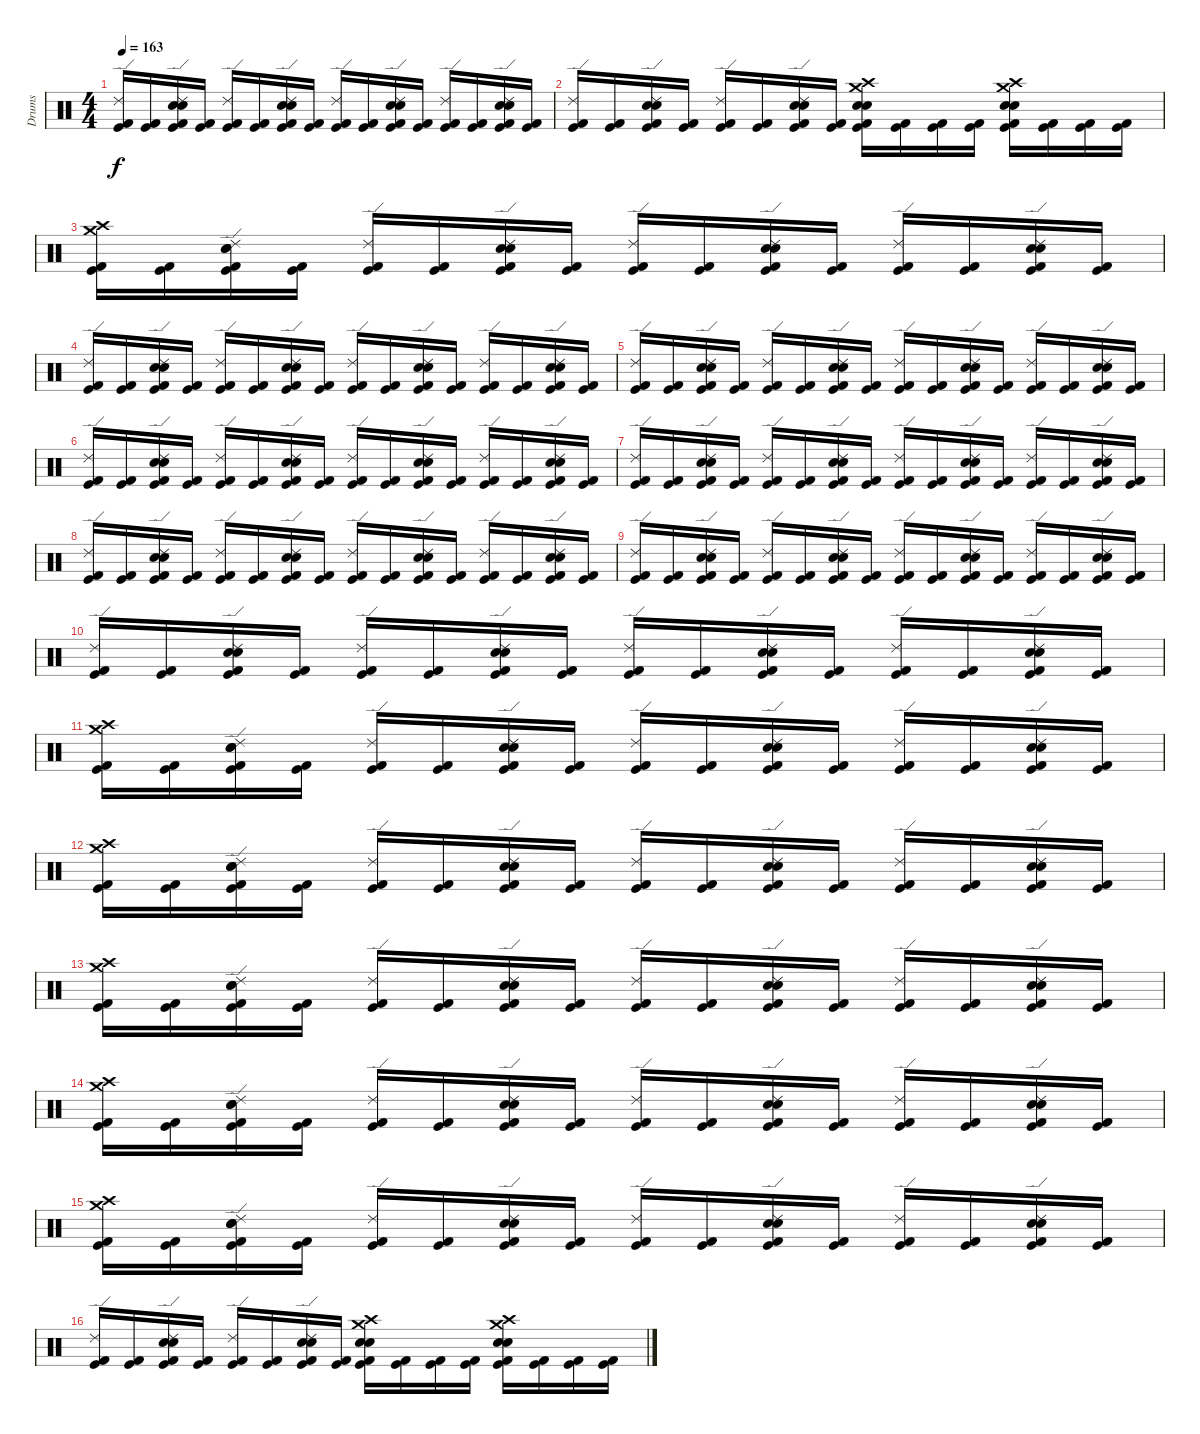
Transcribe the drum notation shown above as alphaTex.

\track ("Drums" "Drums") {instrument percussion}
\staff {score}
\articulation defaults
\ts (4 4)
\tempo 163
\clef neutral
\ks c
("Ride (edge) 2" "Kick (hit) 2" "Kick (hit)").16{dy f} ("Kick (hit) 2" "Kick (hit)").16 ("Ride (edge) 2" "Electric Snare (hit)" "Snare (hit) 2" "Kick (hit) 2" "Kick (hit)").16 ("Kick (hit) 2" "Kick (hit)").16 ("Ride (edge) 2" "Kick (hit) 2" "Kick (hit)").16 ("Kick (hit) 2" "Kick (hit)").16 ("Ride (edge) 2" "Electric Snare (hit)" "Snare (hit) 2" "Kick (hit) 2" "Kick (hit)").16 ("Kick (hit) 2" "Kick (hit)").16 ("Ride (edge) 2" "Kick (hit) 2" "Kick (hit)").16 ("Kick (hit) 2" "Kick (hit)").16 ("Ride (edge) 2" "Electric Snare (hit)" "Snare (hit) 2" "Kick (hit) 2" "Kick (hit)").16 ("Kick (hit) 2" "Kick (hit)").16 ("Ride (edge) 2" "Kick (hit) 2" "Kick (hit)").16 ("Kick (hit) 2" "Kick (hit)").16 ("Ride (edge) 2" "Electric Snare (hit)" "Snare (hit) 2" "Kick (hit) 2" "Kick (hit)").16 ("Kick (hit) 2" "Kick (hit)").16 |
("Ride (edge) 2" "Kick (hit) 2" "Kick (hit)").16 ("Kick (hit) 2" "Kick (hit)").16 ("Ride (edge) 2" "Electric Snare (hit)" "Snare (hit) 2" "Kick (hit) 2" "Kick (hit)").16 ("Kick (hit) 2" "Kick (hit)").16 ("Ride (edge) 2" "Kick (hit) 2" "Kick (hit)").16 ("Kick (hit) 2" "Kick (hit)").16 ("Ride (edge) 2" "Electric Snare (hit)" "Snare (hit) 2" "Kick (hit) 2" "Kick (hit)").16 ("Kick (hit) 2" "Kick (hit)").16 ("Crash high (hit)" "Crash medium (hit)" "Snare (hit) 2" "Electric Snare (hit)" "Kick (hit) 2" "Kick (hit)").16 ("Kick (hit) 2" "Kick (hit)").16 ("Kick (hit) 2" "Kick (hit)").16 ("Kick (hit) 2" "Kick (hit)").16 ("Snare (hit) 2" "Electric Snare (hit)" "Crash medium (hit)" "Crash high (hit)" "Kick (hit) 2" "Kick (hit)").16 ("Kick (hit) 2" "Kick (hit)").16 ("Kick (hit) 2" "Kick (hit)").16 ("Kick (hit) 2" "Kick (hit)").16 |
("Crash high (hit)" "Crash medium (hit)" "Kick (hit) 2" "Kick (hit)").16 ("Kick (hit) 2" "Kick (hit)").16 ("Ride (edge) 2" "Electric Snare (hit)" "Snare (hit) 2" "Kick (hit) 2" "Kick (hit)").16 ("Kick (hit) 2" "Kick (hit)").16 ("Ride (edge) 2" "Kick (hit) 2" "Kick (hit)").16 ("Kick (hit) 2" "Kick (hit)").16 ("Ride (edge) 2" "Electric Snare (hit)" "Snare (hit) 2" "Kick (hit) 2" "Kick (hit)").16 ("Kick (hit) 2" "Kick (hit)").16 ("Ride (edge) 2" "Kick (hit) 2" "Kick (hit)").16 ("Kick (hit) 2" "Kick (hit)").16 ("Ride (edge) 2" "Electric Snare (hit)" "Snare (hit) 2" "Kick (hit) 2" "Kick (hit)").16 ("Kick (hit) 2" "Kick (hit)").16 ("Ride (edge) 2" "Kick (hit) 2" "Kick (hit)").16 ("Kick (hit) 2" "Kick (hit)").16 ("Ride (edge) 2" "Electric Snare (hit)" "Snare (hit) 2" "Kick (hit) 2" "Kick (hit)").16 ("Kick (hit) 2" "Kick (hit)").16 |
("Ride (edge) 2" "Kick (hit) 2" "Kick (hit)").16 ("Kick (hit) 2" "Kick (hit)").16 ("Ride (edge) 2" "Electric Snare (hit)" "Snare (hit) 2" "Kick (hit) 2" "Kick (hit)").16 ("Kick (hit) 2" "Kick (hit)").16 ("Ride (edge) 2" "Kick (hit) 2" "Kick (hit)").16 ("Kick (hit) 2" "Kick (hit)").16 ("Ride (edge) 2" "Electric Snare (hit)" "Snare (hit) 2" "Kick (hit) 2" "Kick (hit)").16 ("Kick (hit) 2" "Kick (hit)").16 ("Ride (edge) 2" "Kick (hit) 2" "Kick (hit)").16 ("Kick (hit) 2" "Kick (hit)").16 ("Ride (edge) 2" "Electric Snare (hit)" "Snare (hit) 2" "Kick (hit) 2" "Kick (hit)").16 ("Kick (hit) 2" "Kick (hit)").16 ("Ride (edge) 2" "Kick (hit) 2" "Kick (hit)").16 ("Kick (hit) 2" "Kick (hit)").16 ("Ride (edge) 2" "Electric Snare (hit)" "Snare (hit) 2" "Kick (hit) 2" "Kick (hit)").16 ("Kick (hit) 2" "Kick (hit)").16 |
("Ride (edge) 2" "Kick (hit) 2" "Kick (hit)").16 ("Kick (hit) 2" "Kick (hit)").16 ("Ride (edge) 2" "Electric Snare (hit)" "Snare (hit) 2" "Kick (hit) 2" "Kick (hit)").16 ("Kick (hit) 2" "Kick (hit)").16 ("Ride (edge) 2" "Kick (hit) 2" "Kick (hit)").16 ("Kick (hit) 2" "Kick (hit)").16 ("Ride (edge) 2" "Electric Snare (hit)" "Snare (hit) 2" "Kick (hit) 2" "Kick (hit)").16 ("Kick (hit) 2" "Kick (hit)").16 ("Ride (edge) 2" "Kick (hit) 2" "Kick (hit)").16 ("Kick (hit) 2" "Kick (hit)").16 ("Ride (edge) 2" "Electric Snare (hit)" "Snare (hit) 2" "Kick (hit) 2" "Kick (hit)").16 ("Kick (hit) 2" "Kick (hit)").16 ("Ride (edge) 2" "Kick (hit) 2" "Kick (hit)").16 ("Kick (hit) 2" "Kick (hit)").16 ("Ride (edge) 2" "Electric Snare (hit)" "Snare (hit) 2" "Kick (hit) 2" "Kick (hit)").16 ("Kick (hit) 2" "Kick (hit)").16 |
("Ride (edge) 2" "Kick (hit) 2" "Kick (hit)").16 ("Kick (hit) 2" "Kick (hit)").16 ("Ride (edge) 2" "Electric Snare (hit)" "Snare (hit) 2" "Kick (hit) 2" "Kick (hit)").16 ("Kick (hit) 2" "Kick (hit)").16 ("Ride (edge) 2" "Kick (hit) 2" "Kick (hit)").16 ("Kick (hit) 2" "Kick (hit)").16 ("Ride (edge) 2" "Electric Snare (hit)" "Snare (hit) 2" "Kick (hit) 2" "Kick (hit)").16 ("Kick (hit) 2" "Kick (hit)").16 ("Ride (edge) 2" "Kick (hit) 2" "Kick (hit)").16 ("Kick (hit) 2" "Kick (hit)").16 ("Ride (edge) 2" "Electric Snare (hit)" "Snare (hit) 2" "Kick (hit) 2" "Kick (hit)").16 ("Kick (hit) 2" "Kick (hit)").16 ("Ride (edge) 2" "Kick (hit) 2" "Kick (hit)").16 ("Kick (hit) 2" "Kick (hit)").16 ("Ride (edge) 2" "Electric Snare (hit)" "Snare (hit) 2" "Kick (hit) 2" "Kick (hit)").16 ("Kick (hit) 2" "Kick (hit)").16 |
("Ride (edge) 2" "Kick (hit) 2" "Kick (hit)").16 ("Kick (hit) 2" "Kick (hit)").16 ("Ride (edge) 2" "Electric Snare (hit)" "Snare (hit) 2" "Kick (hit) 2" "Kick (hit)").16 ("Kick (hit) 2" "Kick (hit)").16 ("Ride (edge) 2" "Kick (hit) 2" "Kick (hit)").16 ("Kick (hit) 2" "Kick (hit)").16 ("Ride (edge) 2" "Electric Snare (hit)" "Snare (hit) 2" "Kick (hit) 2" "Kick (hit)").16 ("Kick (hit) 2" "Kick (hit)").16 ("Ride (edge) 2" "Kick (hit) 2" "Kick (hit)").16 ("Kick (hit) 2" "Kick (hit)").16 ("Ride (edge) 2" "Electric Snare (hit)" "Snare (hit) 2" "Kick (hit) 2" "Kick (hit)").16 ("Kick (hit) 2" "Kick (hit)").16 ("Ride (edge) 2" "Kick (hit) 2" "Kick (hit)").16 ("Kick (hit) 2" "Kick (hit)").16 ("Ride (edge) 2" "Electric Snare (hit)" "Snare (hit) 2" "Kick (hit) 2" "Kick (hit)").16 ("Kick (hit) 2" "Kick (hit)").16 |
("Ride (edge) 2" "Kick (hit) 2" "Kick (hit)").16 ("Kick (hit) 2" "Kick (hit)").16 ("Ride (edge) 2" "Electric Snare (hit)" "Snare (hit) 2" "Kick (hit) 2" "Kick (hit)").16 ("Kick (hit) 2" "Kick (hit)").16 ("Ride (edge) 2" "Kick (hit) 2" "Kick (hit)").16 ("Kick (hit) 2" "Kick (hit)").16 ("Ride (edge) 2" "Electric Snare (hit)" "Snare (hit) 2" "Kick (hit) 2" "Kick (hit)").16 ("Kick (hit) 2" "Kick (hit)").16 ("Ride (edge) 2" "Kick (hit) 2" "Kick (hit)").16 ("Kick (hit) 2" "Kick (hit)").16 ("Ride (edge) 2" "Electric Snare (hit)" "Snare (hit) 2" "Kick (hit) 2" "Kick (hit)").16 ("Kick (hit) 2" "Kick (hit)").16 ("Ride (edge) 2" "Kick (hit) 2" "Kick (hit)").16 ("Kick (hit) 2" "Kick (hit)").16 ("Ride (edge) 2" "Electric Snare (hit)" "Snare (hit) 2" "Kick (hit) 2" "Kick (hit)").16 ("Kick (hit) 2" "Kick (hit)").16 |
("Ride (edge) 2" "Kick (hit) 2" "Kick (hit)").16 ("Kick (hit) 2" "Kick (hit)").16 ("Ride (edge) 2" "Electric Snare (hit)" "Snare (hit) 2" "Kick (hit) 2" "Kick (hit)").16 ("Kick (hit) 2" "Kick (hit)").16 ("Ride (edge) 2" "Kick (hit) 2" "Kick (hit)").16 ("Kick (hit) 2" "Kick (hit)").16 ("Ride (edge) 2" "Electric Snare (hit)" "Snare (hit) 2" "Kick (hit) 2" "Kick (hit)").16 ("Kick (hit) 2" "Kick (hit)").16 ("Ride (edge) 2" "Kick (hit) 2" "Kick (hit)").16 ("Kick (hit) 2" "Kick (hit)").16 ("Ride (edge) 2" "Electric Snare (hit)" "Snare (hit) 2" "Kick (hit) 2" "Kick (hit)").16 ("Kick (hit) 2" "Kick (hit)").16 ("Ride (edge) 2" "Kick (hit) 2" "Kick (hit)").16 ("Kick (hit) 2" "Kick (hit)").16 ("Ride (edge) 2" "Electric Snare (hit)" "Snare (hit) 2" "Kick (hit) 2" "Kick (hit)").16 ("Kick (hit) 2" "Kick (hit)").16 |
("Ride (edge) 2" "Kick (hit) 2" "Kick (hit)").16 ("Kick (hit) 2" "Kick (hit)").16 ("Ride (edge) 2" "Electric Snare (hit)" "Snare (hit) 2" "Kick (hit) 2" "Kick (hit)").16 ("Kick (hit) 2" "Kick (hit)").16 ("Ride (edge) 2" "Kick (hit) 2" "Kick (hit)").16 ("Kick (hit) 2" "Kick (hit)").16 ("Ride (edge) 2" "Electric Snare (hit)" "Snare (hit) 2" "Kick (hit) 2" "Kick (hit)").16 ("Kick (hit) 2" "Kick (hit)").16 ("Ride (edge) 2" "Kick (hit) 2" "Kick (hit)").16 ("Kick (hit) 2" "Kick (hit)").16 ("Ride (edge) 2" "Electric Snare (hit)" "Snare (hit) 2" "Kick (hit) 2" "Kick (hit)").16 ("Kick (hit) 2" "Kick (hit)").16 ("Ride (edge) 2" "Kick (hit) 2" "Kick (hit)").16 ("Kick (hit) 2" "Kick (hit)").16 ("Ride (edge) 2" "Electric Snare (hit)" "Snare (hit) 2" "Kick (hit) 2" "Kick (hit)").16 ("Kick (hit) 2" "Kick (hit)").16 |
("Crash high (hit)" "Crash medium (hit)" "Kick (hit) 2" "Kick (hit)").16 ("Kick (hit) 2" "Kick (hit)").16 ("Ride (edge) 2" "Electric Snare (hit)" "Snare (hit) 2" "Kick (hit) 2" "Kick (hit)").16 ("Kick (hit) 2" "Kick (hit)").16 ("Ride (edge) 2" "Kick (hit) 2" "Kick (hit)").16 ("Kick (hit) 2" "Kick (hit)").16 ("Ride (edge) 2" "Electric Snare (hit)" "Snare (hit) 2" "Kick (hit) 2" "Kick (hit)").16 ("Kick (hit) 2" "Kick (hit)").16 ("Ride (edge) 2" "Kick (hit) 2" "Kick (hit)").16 ("Kick (hit) 2" "Kick (hit)").16 ("Ride (edge) 2" "Electric Snare (hit)" "Snare (hit) 2" "Kick (hit) 2" "Kick (hit)").16 ("Kick (hit) 2" "Kick (hit)").16 ("Ride (edge) 2" "Kick (hit) 2" "Kick (hit)").16 ("Kick (hit) 2" "Kick (hit)").16 ("Ride (edge) 2" "Electric Snare (hit)" "Snare (hit) 2" "Kick (hit) 2" "Kick (hit)").16 ("Kick (hit) 2" "Kick (hit)").16 |
("Crash high (hit)" "Crash medium (hit)" "Kick (hit) 2" "Kick (hit)").16 ("Kick (hit) 2" "Kick (hit)").16 ("Ride (edge) 2" "Electric Snare (hit)" "Snare (hit) 2" "Kick (hit) 2" "Kick (hit)").16 ("Kick (hit) 2" "Kick (hit)").16 ("Ride (edge) 2" "Kick (hit) 2" "Kick (hit)").16 ("Kick (hit) 2" "Kick (hit)").16 ("Ride (edge) 2" "Electric Snare (hit)" "Snare (hit) 2" "Kick (hit) 2" "Kick (hit)").16 ("Kick (hit) 2" "Kick (hit)").16 ("Ride (edge) 2" "Kick (hit) 2" "Kick (hit)").16 ("Kick (hit) 2" "Kick (hit)").16 ("Ride (edge) 2" "Electric Snare (hit)" "Snare (hit) 2" "Kick (hit) 2" "Kick (hit)").16 ("Kick (hit) 2" "Kick (hit)").16 ("Ride (edge) 2" "Kick (hit) 2" "Kick (hit)").16 ("Kick (hit) 2" "Kick (hit)").16 ("Ride (edge) 2" "Electric Snare (hit)" "Snare (hit) 2" "Kick (hit) 2" "Kick (hit)").16 ("Kick (hit) 2" "Kick (hit)").16 |
("Crash high (hit)" "Crash medium (hit)" "Kick (hit) 2" "Kick (hit)").16 ("Kick (hit) 2" "Kick (hit)").16 ("Ride (edge) 2" "Electric Snare (hit)" "Snare (hit) 2" "Kick (hit) 2" "Kick (hit)").16 ("Kick (hit) 2" "Kick (hit)").16 ("Ride (edge) 2" "Kick (hit) 2" "Kick (hit)").16 ("Kick (hit) 2" "Kick (hit)").16 ("Ride (edge) 2" "Electric Snare (hit)" "Snare (hit) 2" "Kick (hit) 2" "Kick (hit)").16 ("Kick (hit) 2" "Kick (hit)").16 ("Ride (edge) 2" "Kick (hit) 2" "Kick (hit)").16 ("Kick (hit) 2" "Kick (hit)").16 ("Ride (edge) 2" "Electric Snare (hit)" "Snare (hit) 2" "Kick (hit) 2" "Kick (hit)").16 ("Kick (hit) 2" "Kick (hit)").16 ("Ride (edge) 2" "Kick (hit) 2" "Kick (hit)").16 ("Kick (hit) 2" "Kick (hit)").16 ("Ride (edge) 2" "Electric Snare (hit)" "Snare (hit) 2" "Kick (hit) 2" "Kick (hit)").16 ("Kick (hit) 2" "Kick (hit)").16 |
("Crash high (hit)" "Crash medium (hit)" "Kick (hit) 2" "Kick (hit)").16 ("Kick (hit) 2" "Kick (hit)").16 ("Ride (edge) 2" "Electric Snare (hit)" "Snare (hit) 2" "Kick (hit) 2" "Kick (hit)").16 ("Kick (hit) 2" "Kick (hit)").16 ("Ride (edge) 2" "Kick (hit) 2" "Kick (hit)").16 ("Kick (hit) 2" "Kick (hit)").16 ("Ride (edge) 2" "Electric Snare (hit)" "Snare (hit) 2" "Kick (hit) 2" "Kick (hit)").16 ("Kick (hit) 2" "Kick (hit)").16 ("Ride (edge) 2" "Kick (hit) 2" "Kick (hit)").16 ("Kick (hit) 2" "Kick (hit)").16 ("Ride (edge) 2" "Electric Snare (hit)" "Snare (hit) 2" "Kick (hit) 2" "Kick (hit)").16 ("Kick (hit) 2" "Kick (hit)").16 ("Ride (edge) 2" "Kick (hit) 2" "Kick (hit)").16 ("Kick (hit) 2" "Kick (hit)").16 ("Ride (edge) 2" "Electric Snare (hit)" "Snare (hit) 2" "Kick (hit) 2" "Kick (hit)").16 ("Kick (hit) 2" "Kick (hit)").16 |
("Crash high (hit)" "Crash medium (hit)" "Kick (hit) 2" "Kick (hit)").16 ("Kick (hit) 2" "Kick (hit)").16 ("Ride (edge) 2" "Electric Snare (hit)" "Snare (hit) 2" "Kick (hit) 2" "Kick (hit)").16 ("Kick (hit) 2" "Kick (hit)").16 ("Ride (edge) 2" "Kick (hit) 2" "Kick (hit)").16 ("Kick (hit) 2" "Kick (hit)").16 ("Ride (edge) 2" "Electric Snare (hit)" "Snare (hit) 2" "Kick (hit) 2" "Kick (hit)").16 ("Kick (hit) 2" "Kick (hit)").16 ("Ride (edge) 2" "Kick (hit) 2" "Kick (hit)").16 ("Kick (hit) 2" "Kick (hit)").16 ("Ride (edge) 2" "Electric Snare (hit)" "Snare (hit) 2" "Kick (hit) 2" "Kick (hit)").16 ("Kick (hit) 2" "Kick (hit)").16 ("Ride (edge) 2" "Kick (hit) 2" "Kick (hit)").16 ("Kick (hit) 2" "Kick (hit)").16 ("Ride (edge) 2" "Electric Snare (hit)" "Snare (hit) 2" "Kick (hit) 2" "Kick (hit)").16 ("Kick (hit) 2" "Kick (hit)").16 |
("Ride (edge) 2" "Kick (hit) 2" "Kick (hit)").16 ("Kick (hit) 2" "Kick (hit)").16 ("Ride (edge) 2" "Electric Snare (hit)" "Snare (hit) 2" "Kick (hit) 2" "Kick (hit)").16 ("Kick (hit) 2" "Kick (hit)").16 ("Ride (edge) 2" "Kick (hit) 2" "Kick (hit)").16 ("Kick (hit) 2" "Kick (hit)").16 ("Ride (edge) 2" "Electric Snare (hit)" "Snare (hit) 2" "Kick (hit) 2" "Kick (hit)").16 ("Kick (hit) 2" "Kick (hit)").16 ("Crash high (hit)" "Crash medium (hit)" "Electric Snare (hit)" "Snare (hit) 2" "Kick (hit) 2" "Kick (hit)").16 ("Kick (hit) 2" "Kick (hit)").16 ("Kick (hit) 2" "Kick (hit)").16 ("Kick (hit) 2" "Kick (hit)").16 ("Electric Snare (hit)" "Snare (hit) 2" "Crash medium (hit)" "Crash high (hit)" "Kick (hit) 2" "Kick (hit)").16 ("Kick (hit) 2" "Kick (hit)").16 ("Kick (hit) 2" "Kick (hit)").16 ("Kick (hit) 2" "Kick (hit)").16
